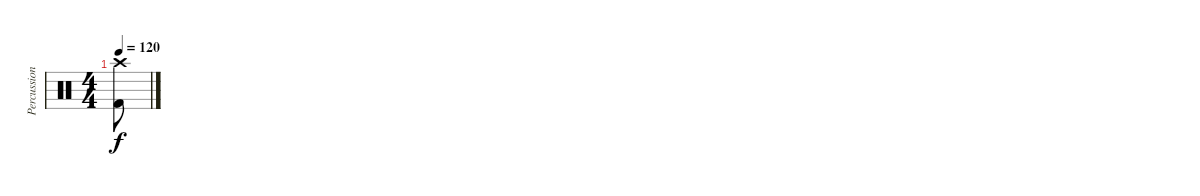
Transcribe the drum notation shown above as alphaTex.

\track ("Percussion" "Percussion") {instrument percussion}
\staff {score}
\articulation defaults
\ts (4 4)
\tempo 120
\clef neutral
\ks c
("Crash high (hit)" "Kick (hit) 2").8{dy f}
